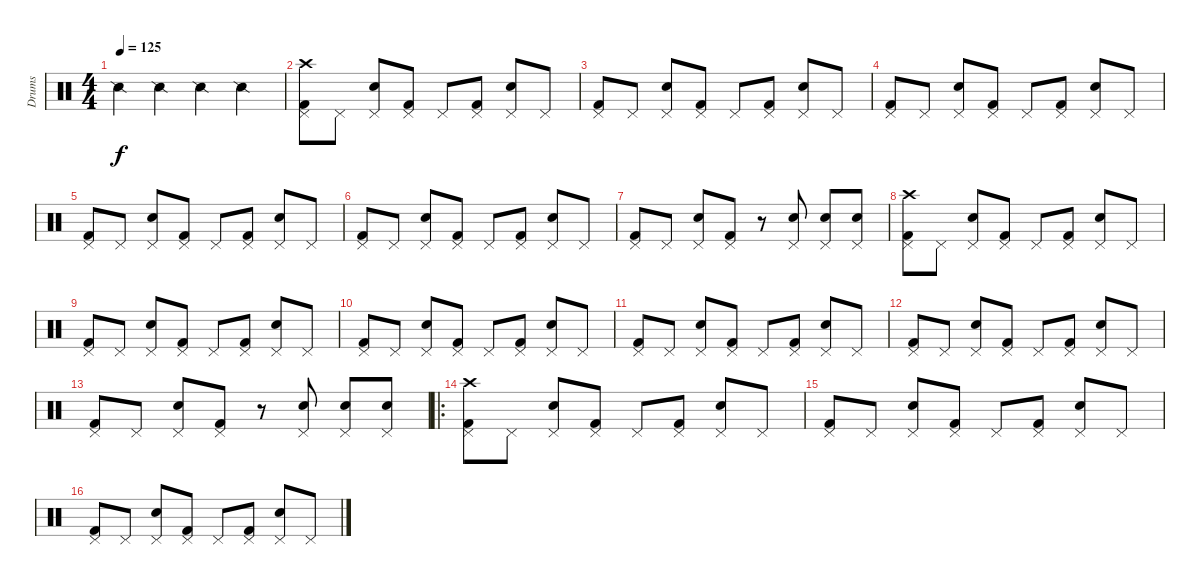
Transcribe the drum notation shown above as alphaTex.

\track ("Drums" "Drums") {instrument percussion}
\staff {score}
\articulation defaults
\ts (4 4)
\tempo 125
\clef neutral
\ks c "Snare (side stick) 2".4{dy f} "Snare (side stick) 2".4 "Snare (side stick) 2".4 "Snare (side stick) 2".4
|
("Kick (hit) 2" "Pedal Hi-Hat (hit)" "Crash high (hit)").8 "Pedal Hi-Hat (hit)".8 ("Pedal Hi-Hat (hit)" "Snare (hit) 2").8 ("Pedal Hi-Hat (hit)" "Kick (hit) 2").8 "Pedal Hi-Hat (hit)".8 ("Kick (hit) 2" "Pedal Hi-Hat (hit)").8 ("Snare (hit) 2" "Pedal Hi-Hat (hit)").8 "Pedal Hi-Hat (hit)".8 |
("Kick (hit) 2" "Pedal Hi-Hat (hit)").8 "Pedal Hi-Hat (hit)".8 ("Pedal Hi-Hat (hit)" "Snare (hit) 2").8 ("Pedal Hi-Hat (hit)" "Kick (hit) 2").8 "Pedal Hi-Hat (hit)".8 ("Kick (hit) 2" "Pedal Hi-Hat (hit)").8 ("Snare (hit) 2" "Pedal Hi-Hat (hit)").8 "Pedal Hi-Hat (hit)".8 |
("Kick (hit) 2" "Pedal Hi-Hat (hit)").8 "Pedal Hi-Hat (hit)".8 ("Pedal Hi-Hat (hit)" "Snare (hit) 2").8 ("Pedal Hi-Hat (hit)" "Kick (hit) 2").8 "Pedal Hi-Hat (hit)".8 ("Kick (hit) 2" "Pedal Hi-Hat (hit)").8 ("Snare (hit) 2" "Pedal Hi-Hat (hit)").8 "Pedal Hi-Hat (hit)".8 |
("Kick (hit) 2" "Pedal Hi-Hat (hit)").8 "Pedal Hi-Hat (hit)".8 ("Pedal Hi-Hat (hit)" "Snare (hit) 2").8 ("Pedal Hi-Hat (hit)" "Kick (hit) 2").8 "Pedal Hi-Hat (hit)".8 ("Kick (hit) 2" "Pedal Hi-Hat (hit)").8 ("Snare (hit) 2" "Pedal Hi-Hat (hit)").8 "Pedal Hi-Hat (hit)".8 |
("Kick (hit) 2" "Pedal Hi-Hat (hit)").8 "Pedal Hi-Hat (hit)".8 ("Pedal Hi-Hat (hit)" "Snare (hit) 2").8 ("Pedal Hi-Hat (hit)" "Kick (hit) 2").8 "Pedal Hi-Hat (hit)".8 ("Kick (hit) 2" "Pedal Hi-Hat (hit)").8 ("Snare (hit) 2" "Pedal Hi-Hat (hit)").8 "Pedal Hi-Hat (hit)".8 |
("Kick (hit) 2" "Pedal Hi-Hat (hit)").8 "Pedal Hi-Hat (hit)".8 ("Pedal Hi-Hat (hit)" "Snare (hit) 2").8 ("Pedal Hi-Hat (hit)" "Kick (hit) 2").8 r.8 ("Snare (hit) 2" "Pedal Hi-Hat (hit)").8 ("Snare (hit) 2" "Pedal Hi-Hat (hit)").8 ("Snare (hit) 2" "Pedal Hi-Hat (hit)").8 |
("Kick (hit) 2" "Pedal Hi-Hat (hit)" "Crash high (hit)").8 "Pedal Hi-Hat (hit)".8 ("Pedal Hi-Hat (hit)" "Snare (hit) 2").8 ("Pedal Hi-Hat (hit)" "Kick (hit) 2").8 "Pedal Hi-Hat (hit)".8 ("Kick (hit) 2" "Pedal Hi-Hat (hit)").8 ("Snare (hit) 2" "Pedal Hi-Hat (hit)").8 "Pedal Hi-Hat (hit)".8 |
("Kick (hit) 2" "Pedal Hi-Hat (hit)").8 "Pedal Hi-Hat (hit)".8 ("Pedal Hi-Hat (hit)" "Snare (hit) 2").8 ("Pedal Hi-Hat (hit)" "Kick (hit) 2").8 "Pedal Hi-Hat (hit)".8 ("Kick (hit) 2" "Pedal Hi-Hat (hit)").8 ("Snare (hit) 2" "Pedal Hi-Hat (hit)").8 "Pedal Hi-Hat (hit)".8 |
("Kick (hit) 2" "Pedal Hi-Hat (hit)").8 "Pedal Hi-Hat (hit)".8 ("Pedal Hi-Hat (hit)" "Snare (hit) 2").8 ("Pedal Hi-Hat (hit)" "Kick (hit) 2").8 "Pedal Hi-Hat (hit)".8 ("Kick (hit) 2" "Pedal Hi-Hat (hit)").8 ("Snare (hit) 2" "Pedal Hi-Hat (hit)").8 "Pedal Hi-Hat (hit)".8 |
("Kick (hit) 2" "Pedal Hi-Hat (hit)").8 "Pedal Hi-Hat (hit)".8 ("Pedal Hi-Hat (hit)" "Snare (hit) 2").8 ("Pedal Hi-Hat (hit)" "Kick (hit) 2").8 "Pedal Hi-Hat (hit)".8 ("Kick (hit) 2" "Pedal Hi-Hat (hit)").8 ("Snare (hit) 2" "Pedal Hi-Hat (hit)").8 "Pedal Hi-Hat (hit)".8 |
("Kick (hit) 2" "Pedal Hi-Hat (hit)").8 "Pedal Hi-Hat (hit)".8 ("Pedal Hi-Hat (hit)" "Snare (hit) 2").8 ("Pedal Hi-Hat (hit)" "Kick (hit) 2").8 "Pedal Hi-Hat (hit)".8 ("Kick (hit) 2" "Pedal Hi-Hat (hit)").8 ("Snare (hit) 2" "Pedal Hi-Hat (hit)").8 "Pedal Hi-Hat (hit)".8 |
("Kick (hit) 2" "Pedal Hi-Hat (hit)").8 "Pedal Hi-Hat (hit)".8 ("Pedal Hi-Hat (hit)" "Snare (hit) 2").8 ("Pedal Hi-Hat (hit)" "Kick (hit) 2").8 r.8 ("Snare (hit) 2" "Pedal Hi-Hat (hit)").8 ("Snare (hit) 2" "Pedal Hi-Hat (hit)").8 ("Snare (hit) 2" "Pedal Hi-Hat (hit)").8 |
\ro
("Kick (hit) 2" "Pedal Hi-Hat (hit)" "Crash high (hit)").8 "Pedal Hi-Hat (hit)".8 ("Pedal Hi-Hat (hit)" "Snare (hit) 2").8 ("Pedal Hi-Hat (hit)" "Kick (hit) 2").8 "Pedal Hi-Hat (hit)".8 ("Kick (hit) 2" "Pedal Hi-Hat (hit)").8 ("Snare (hit) 2" "Pedal Hi-Hat (hit)").8 "Pedal Hi-Hat (hit)".8 |
("Kick (hit) 2" "Pedal Hi-Hat (hit)").8 "Pedal Hi-Hat (hit)".8 ("Pedal Hi-Hat (hit)" "Snare (hit) 2").8 ("Pedal Hi-Hat (hit)" "Kick (hit) 2").8 "Pedal Hi-Hat (hit)".8 ("Kick (hit) 2" "Pedal Hi-Hat (hit)").8 ("Snare (hit) 2" "Pedal Hi-Hat (hit)").8 "Pedal Hi-Hat (hit)".8 |
("Kick (hit) 2" "Pedal Hi-Hat (hit)").8 "Pedal Hi-Hat (hit)".8 ("Pedal Hi-Hat (hit)" "Snare (hit) 2").8 ("Pedal Hi-Hat (hit)" "Kick (hit) 2").8 "Pedal Hi-Hat (hit)".8 ("Kick (hit) 2" "Pedal Hi-Hat (hit)").8 ("Snare (hit) 2" "Pedal Hi-Hat (hit)").8 "Pedal Hi-Hat (hit)".8
